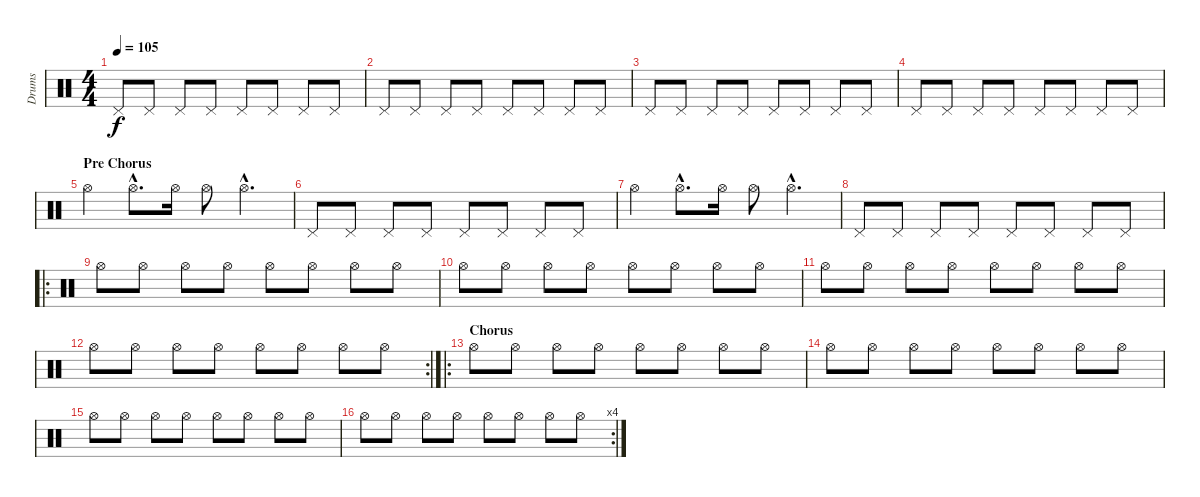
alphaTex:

\track ("Drums" "Drums") {instrument percussion}
\staff {score}
\articulation defaults
\ts (4 4)
\tempo 105
\clef neutral
\ks c "Pedal Hi-Hat (hit)".8{dy f} "Pedal Hi-Hat (hit)".8 "Pedal Hi-Hat (hit)".8 "Pedal Hi-Hat (hit)".8 "Pedal Hi-Hat (hit)".8 "Pedal Hi-Hat (hit)".8 "Pedal Hi-Hat (hit)".8 "Pedal Hi-Hat (hit)".8
|
"Pedal Hi-Hat (hit)".8 "Pedal Hi-Hat (hit)".8 "Pedal Hi-Hat (hit)".8 "Pedal Hi-Hat (hit)".8 "Pedal Hi-Hat (hit)".8 "Pedal Hi-Hat (hit)".8 "Pedal Hi-Hat (hit)".8 "Pedal Hi-Hat (hit)".8 |
"Pedal Hi-Hat (hit)".8 "Pedal Hi-Hat (hit)".8 "Pedal Hi-Hat (hit)".8 "Pedal Hi-Hat (hit)".8 "Pedal Hi-Hat (hit)".8 "Pedal Hi-Hat (hit)".8 "Pedal Hi-Hat (hit)".8 "Pedal Hi-Hat (hit)".8 |
"Pedal Hi-Hat (hit)".8 "Pedal Hi-Hat (hit)".8 "Pedal Hi-Hat (hit)".8 "Pedal Hi-Hat (hit)".8 "Pedal Hi-Hat (hit)".8 "Pedal Hi-Hat (hit)".8 "Pedal Hi-Hat (hit)".8 "Pedal Hi-Hat (hit)".8 |
\section ("" "Pre Chorus")
"Hi-Hat (open)".4 "Hi-Hat (open)"{hac}.8{d} "Hi-Hat (open)".16 "Hi-Hat (open)".8 "Hi-Hat (open)"{hac}.4{d} |
"Pedal Hi-Hat (hit)".8 "Pedal Hi-Hat (hit)".8 "Pedal Hi-Hat (hit)".8 "Pedal Hi-Hat (hit)".8 "Pedal Hi-Hat (hit)".8 "Pedal Hi-Hat (hit)".8 "Pedal Hi-Hat (hit)".8 "Pedal Hi-Hat (hit)".8 |
"Hi-Hat (open)".4 "Hi-Hat (open)"{hac}.8{d} "Hi-Hat (open)".16 "Hi-Hat (open)".8 "Hi-Hat (open)"{hac}.4{d} |
"Pedal Hi-Hat (hit)".8 "Pedal Hi-Hat (hit)".8 "Pedal Hi-Hat (hit)".8 "Pedal Hi-Hat (hit)".8 "Pedal Hi-Hat (hit)".8 "Pedal Hi-Hat (hit)".8 "Pedal Hi-Hat (hit)".8 "Pedal Hi-Hat (hit)".8 |
\ro "Hi-Hat (open)".8 "Hi-Hat (open)".8 "Hi-Hat (open)".8 "Hi-Hat (open)".8 "Hi-Hat (open)".8 "Hi-Hat (open)".8 "Hi-Hat (open)".8 "Hi-Hat (open)".8
|
"Hi-Hat (open)".8 "Hi-Hat (open)".8 "Hi-Hat (open)".8 "Hi-Hat (open)".8 "Hi-Hat (open)".8 "Hi-Hat (open)".8 "Hi-Hat (open)".8 "Hi-Hat (open)".8 |
"Hi-Hat (open)".8 "Hi-Hat (open)".8 "Hi-Hat (open)".8 "Hi-Hat (open)".8 "Hi-Hat (open)".8 "Hi-Hat (open)".8 "Hi-Hat (open)".8 "Hi-Hat (open)".8 |
\rc 2 "Hi-Hat (open)".8 "Hi-Hat (open)".8 "Hi-Hat (open)".8 "Hi-Hat (open)".8 "Hi-Hat (open)".8 "Hi-Hat (open)".8 "Hi-Hat (open)".8 "Hi-Hat (open)".8
|
\ro
\section ("" "Chorus")
"Hi-Hat (open)".8 "Hi-Hat (open)".8 "Hi-Hat (open)".8 "Hi-Hat (open)".8 "Hi-Hat (open)".8 "Hi-Hat (open)".8 "Hi-Hat (open)".8 "Hi-Hat (open)".8 |
"Hi-Hat (open)".8 "Hi-Hat (open)".8 "Hi-Hat (open)".8 "Hi-Hat (open)".8 "Hi-Hat (open)".8 "Hi-Hat (open)".8 "Hi-Hat (open)".8 "Hi-Hat (open)".8 |
"Hi-Hat (open)".8 "Hi-Hat (open)".8 "Hi-Hat (open)".8 "Hi-Hat (open)".8 "Hi-Hat (open)".8 "Hi-Hat (open)".8 "Hi-Hat (open)".8 "Hi-Hat (open)".8 |
\rc 4 "Hi-Hat (open)".8 "Hi-Hat (open)".8 "Hi-Hat (open)".8 "Hi-Hat (open)".8 "Hi-Hat (open)".8 "Hi-Hat (open)".8 "Hi-Hat (open)".8 "Hi-Hat (open)".8
